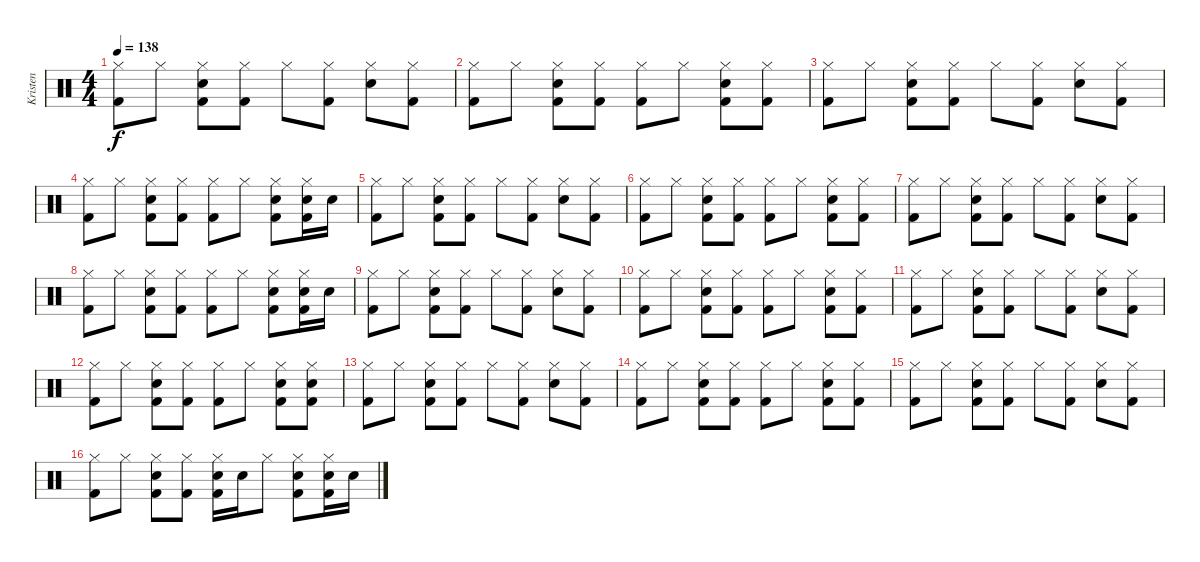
\track ("Kristen" "Kristen") {instrument percussion}
\staff {score}
\articulation defaults
\ts (4 4)
\tempo 138
\clef neutral
\ks c
("Hi-Hat (closed)" "Kick (hit) 2").8{dy f} "Hi-Hat (closed)".8 ("Hi-Hat (closed)" "Snare (hit) 2" "Kick (hit) 2").8 ("Hi-Hat (closed)" "Kick (hit) 2").8 "Hi-Hat (closed)".8 ("Hi-Hat (closed)" "Kick (hit) 2").8 ("Hi-Hat (closed)" "Snare (hit) 2").8 ("Hi-Hat (closed)" "Kick (hit) 2").8 |
("Hi-Hat (closed)" "Kick (hit) 2").8 "Hi-Hat (closed)".8 ("Hi-Hat (closed)" "Snare (hit) 2" "Kick (hit) 2").8 ("Hi-Hat (closed)" "Kick (hit) 2").8 ("Hi-Hat (closed)" "Kick (hit) 2").8 "Hi-Hat (closed)".8 ("Hi-Hat (closed)" "Snare (hit) 2" "Kick (hit) 2").8 ("Hi-Hat (closed)" "Kick (hit) 2").8 |
("Hi-Hat (closed)" "Kick (hit) 2").8 "Hi-Hat (closed)".8 ("Hi-Hat (closed)" "Snare (hit) 2" "Kick (hit) 2").8 ("Hi-Hat (closed)" "Kick (hit) 2").8 "Hi-Hat (closed)".8 ("Hi-Hat (closed)" "Kick (hit) 2").8 ("Hi-Hat (closed)" "Snare (hit) 2").8 ("Hi-Hat (closed)" "Kick (hit) 2").8 |
("Hi-Hat (closed)" "Kick (hit) 2").8 "Hi-Hat (closed)".8 ("Hi-Hat (closed)" "Snare (hit) 2" "Kick (hit) 2").8 ("Hi-Hat (closed)" "Kick (hit) 2").8 ("Hi-Hat (closed)" "Kick (hit) 2").8 "Hi-Hat (closed)".8 ("Hi-Hat (closed)" "Snare (hit) 2" "Kick (hit) 2").8 ("Hi-Hat (closed)" "Snare (hit) 2" "Kick (hit) 2").16 "Snare (hit) 2".16 |
("Hi-Hat (closed)" "Kick (hit) 2").8 "Hi-Hat (closed)".8 ("Hi-Hat (closed)" "Snare (hit) 2" "Kick (hit) 2").8 ("Hi-Hat (closed)" "Kick (hit) 2").8 "Hi-Hat (closed)".8 ("Hi-Hat (closed)" "Kick (hit) 2").8 ("Hi-Hat (closed)" "Snare (hit) 2").8 ("Hi-Hat (closed)" "Kick (hit) 2").8 |
("Hi-Hat (closed)" "Kick (hit) 2").8 "Hi-Hat (closed)".8 ("Hi-Hat (closed)" "Snare (hit) 2" "Kick (hit) 2").8 ("Hi-Hat (closed)" "Kick (hit) 2").8 ("Hi-Hat (closed)" "Kick (hit) 2").8 "Hi-Hat (closed)".8 ("Hi-Hat (closed)" "Snare (hit) 2" "Kick (hit) 2").8 ("Hi-Hat (closed)" "Kick (hit) 2").8 |
("Hi-Hat (closed)" "Kick (hit) 2").8 "Hi-Hat (closed)".8 ("Hi-Hat (closed)" "Snare (hit) 2" "Kick (hit) 2").8 ("Hi-Hat (closed)" "Kick (hit) 2").8 "Hi-Hat (closed)".8 ("Hi-Hat (closed)" "Kick (hit) 2").8 ("Hi-Hat (closed)" "Snare (hit) 2").8 ("Hi-Hat (closed)" "Kick (hit) 2").8 |
("Hi-Hat (closed)" "Kick (hit) 2").8 "Hi-Hat (closed)".8 ("Hi-Hat (closed)" "Snare (hit) 2" "Kick (hit) 2").8 ("Hi-Hat (closed)" "Kick (hit) 2").8 ("Hi-Hat (closed)" "Kick (hit) 2").8 "Hi-Hat (closed)".8 ("Hi-Hat (closed)" "Snare (hit) 2" "Kick (hit) 2").8 ("Hi-Hat (closed)" "Snare (hit) 2" "Kick (hit) 2").16 "Snare (hit) 2".16 |
("Hi-Hat (closed)" "Kick (hit) 2").8 "Hi-Hat (closed)".8 ("Hi-Hat (closed)" "Snare (hit) 2" "Kick (hit) 2").8 ("Hi-Hat (closed)" "Kick (hit) 2").8 "Hi-Hat (closed)".8 ("Hi-Hat (closed)" "Kick (hit) 2").8 ("Hi-Hat (closed)" "Snare (hit) 2").8 ("Hi-Hat (closed)" "Kick (hit) 2").8 |
("Hi-Hat (closed)" "Kick (hit) 2").8 "Hi-Hat (closed)".8 ("Hi-Hat (closed)" "Snare (hit) 2" "Kick (hit) 2").8 ("Hi-Hat (closed)" "Kick (hit) 2").8 ("Hi-Hat (closed)" "Kick (hit) 2").8 "Hi-Hat (closed)".8 ("Hi-Hat (closed)" "Snare (hit) 2" "Kick (hit) 2").8 ("Hi-Hat (closed)" "Kick (hit) 2").8 |
("Hi-Hat (closed)" "Kick (hit) 2").8 "Hi-Hat (closed)".8 ("Hi-Hat (closed)" "Snare (hit) 2" "Kick (hit) 2").8 ("Hi-Hat (closed)" "Kick (hit) 2").8 "Hi-Hat (closed)".8 ("Hi-Hat (closed)" "Kick (hit) 2").8 ("Hi-Hat (closed)" "Snare (hit) 2").8 ("Hi-Hat (closed)" "Kick (hit) 2").8 |
("Hi-Hat (closed)" "Kick (hit) 2").8 "Hi-Hat (closed)".8 ("Hi-Hat (closed)" "Snare (hit) 2" "Kick (hit) 2").8 ("Hi-Hat (closed)" "Kick (hit) 2").8 ("Hi-Hat (closed)" "Kick (hit) 2").8 "Hi-Hat (closed)".8 ("Hi-Hat (closed)" "Snare (hit) 2" "Kick (hit) 2").8 ("Hi-Hat (closed)" "Snare (hit) 2" "Kick (hit) 2").8 |
("Hi-Hat (closed)" "Kick (hit) 2").8 "Hi-Hat (closed)".8 ("Hi-Hat (closed)" "Snare (hit) 2" "Kick (hit) 2").8 ("Hi-Hat (closed)" "Kick (hit) 2").8 "Hi-Hat (closed)".8 ("Hi-Hat (closed)" "Kick (hit) 2").8 ("Hi-Hat (closed)" "Snare (hit) 2").8 ("Hi-Hat (closed)" "Kick (hit) 2").8 |
("Hi-Hat (closed)" "Kick (hit) 2").8 "Hi-Hat (closed)".8 ("Hi-Hat (closed)" "Snare (hit) 2" "Kick (hit) 2").8 ("Hi-Hat (closed)" "Kick (hit) 2").8 ("Hi-Hat (closed)" "Kick (hit) 2").8 "Hi-Hat (closed)".8 ("Hi-Hat (closed)" "Snare (hit) 2" "Kick (hit) 2").8 ("Hi-Hat (closed)" "Kick (hit) 2").8 |
("Hi-Hat (closed)" "Kick (hit) 2").8 "Hi-Hat (closed)".8 ("Hi-Hat (closed)" "Snare (hit) 2" "Kick (hit) 2").8 ("Hi-Hat (closed)" "Kick (hit) 2").8 "Hi-Hat (closed)".8 ("Hi-Hat (closed)" "Kick (hit) 2").8 ("Hi-Hat (closed)" "Snare (hit) 2").8 ("Hi-Hat (closed)" "Kick (hit) 2").8 |
("Hi-Hat (closed)" "Kick (hit) 2").8 "Hi-Hat (closed)".8 ("Hi-Hat (closed)" "Snare (hit) 2" "Kick (hit) 2").8 ("Hi-Hat (closed)" "Kick (hit) 2").8 ("Hi-Hat (closed)" "Snare (hit) 2" "Kick (hit) 2").16 "Snare (hit) 2".16 "Hi-Hat (closed)".8 ("Hi-Hat (closed)" "Snare (hit) 2" "Kick (hit) 2").8 ("Hi-Hat (closed)" "Snare (hit) 2" "Kick (hit) 2").16 "Snare (hit) 2".16
